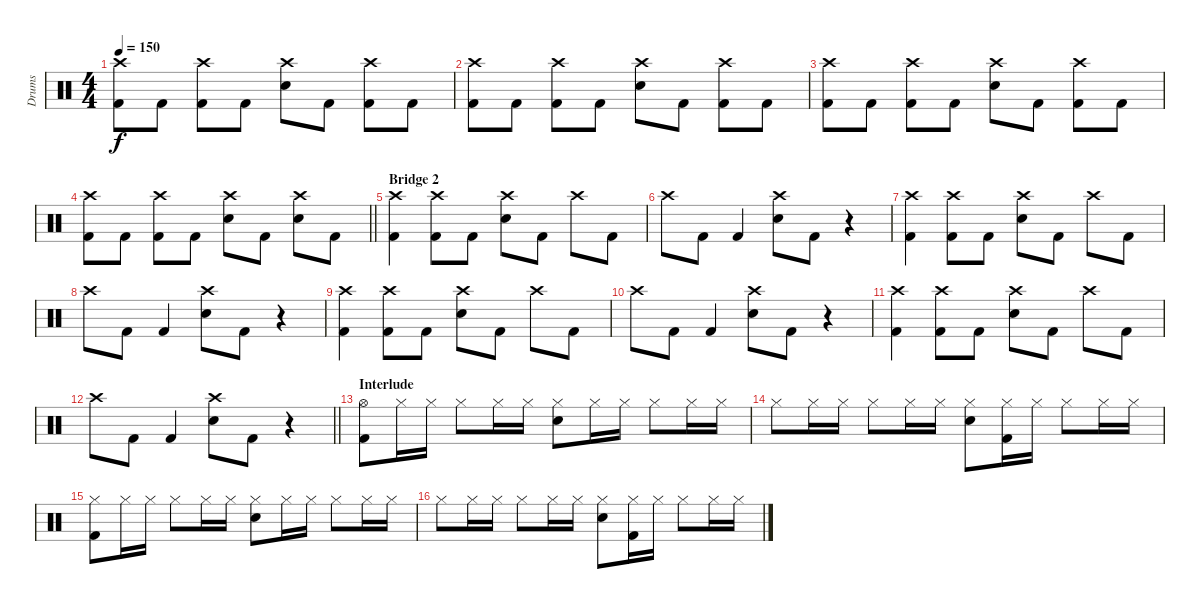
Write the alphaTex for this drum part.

\track ("Drums" "Drums") {instrument percussion}
\staff {score}
\articulation defaults
\ts (4 4)
\tempo 150
\clef neutral
\ks c
("Crash high (hit)" "Kick (hit) 2").8{dy f} "Kick (hit) 2".8 ("Crash high (hit)" "Kick (hit) 2").8 "Kick (hit) 2".8 ("Crash high (hit)" "Snare (hit) 2").8 "Kick (hit) 2".8 ("Crash high (hit)" "Kick (hit) 2").8 "Kick (hit) 2".8 |
("Crash high (hit)" "Kick (hit) 2").8 "Kick (hit) 2".8 ("Crash high (hit)" "Kick (hit) 2").8 "Kick (hit) 2".8 ("Crash high (hit)" "Snare (hit) 2").8 "Kick (hit) 2".8 ("Crash high (hit)" "Kick (hit) 2").8 "Kick (hit) 2".8 |
("Crash high (hit)" "Kick (hit) 2").8 "Kick (hit) 2".8 ("Crash high (hit)" "Kick (hit) 2").8 "Kick (hit) 2".8 ("Crash high (hit)" "Snare (hit) 2").8 "Kick (hit) 2".8 ("Crash high (hit)" "Kick (hit) 2").8 "Kick (hit) 2".8 |
\barLineRight lightlight
("Crash high (hit)" "Kick (hit) 2").8 "Kick (hit) 2".8 ("Crash high (hit)" "Kick (hit) 2").8 "Kick (hit) 2".8 ("Crash high (hit)" "Snare (hit) 2").8 "Kick (hit) 2".8 ("Crash high (hit)" "Snare (hit) 2").8 "Kick (hit) 2".8 |
\section ("" "Bridge 2")
("Crash high (hit)" "Kick (hit) 2").4 ("Crash high (hit)" "Kick (hit) 2").8 "Kick (hit) 2".8 ("Crash high (hit)" "Snare (hit) 2").8 "Kick (hit) 2".8 "Crash high (hit)".8 "Kick (hit) 2".8 |
"Crash high (hit)".8 "Kick (hit) 2".8 "Kick (hit) 2".4 ("Crash high (hit)" "Snare (hit) 2").8 "Kick (hit) 2".8 r.4 |
("Crash high (hit)" "Kick (hit) 2").4 ("Crash high (hit)" "Kick (hit) 2").8 "Kick (hit) 2".8 ("Crash high (hit)" "Snare (hit) 2").8 "Kick (hit) 2".8 "Crash high (hit)".8 "Kick (hit) 2".8 |
"Crash high (hit)".8 "Kick (hit) 2".8 "Kick (hit) 2".4 ("Crash high (hit)" "Snare (hit) 2").8 "Kick (hit) 2".8 r.4 |
("Crash high (hit)" "Kick (hit) 2").4 ("Crash high (hit)" "Kick (hit) 2").8 "Kick (hit) 2".8 ("Crash high (hit)" "Snare (hit) 2").8 "Kick (hit) 2".8 "Crash high (hit)".8 "Kick (hit) 2".8 |
"Crash high (hit)".8 "Kick (hit) 2".8 "Kick (hit) 2".4 ("Crash high (hit)" "Snare (hit) 2").8 "Kick (hit) 2".8 r.4 |
("Crash high (hit)" "Kick (hit) 2").4 ("Crash high (hit)" "Kick (hit) 2").8 "Kick (hit) 2".8 ("Crash high (hit)" "Snare (hit) 2").8 "Kick (hit) 2".8 "Crash high (hit)".8 "Kick (hit) 2".8 |
\barLineRight lightlight "Crash high (hit)".8 "Kick (hit) 2".8 "Kick (hit) 2".4
("Crash high (hit)" "Snare (hit) 2").8 "Kick (hit) 2".8 r.4 |
\section ("" "Interlude")
("Hi-Hat (open)" "Kick (hit) 2").8 "Hi-Hat (closed)".16 "Hi-Hat (closed)".16 "Hi-Hat (closed)".8 "Hi-Hat (closed)".16 "Hi-Hat (closed)".16 ("Hi-Hat (closed)" "Snare (hit) 2").8 "Hi-Hat (closed)".16 "Hi-Hat (closed)".16 "Hi-Hat (closed)".8 "Hi-Hat (closed)".16 "Hi-Hat (closed)".16 |
"Hi-Hat (closed)".8 "Hi-Hat (closed)".16 "Hi-Hat (closed)".16 "Hi-Hat (closed)".8 "Hi-Hat (closed)".16 "Hi-Hat (closed)".16 ("Hi-Hat (closed)" "Snare (hit) 2").8 ("Hi-Hat (closed)" "Kick (hit) 2").16 "Hi-Hat (closed)".16 "Hi-Hat (closed)".8 "Hi-Hat (closed)".16 "Hi-Hat (closed)".16 |
("Hi-Hat (closed)" "Kick (hit) 2").8 "Hi-Hat (closed)".16 "Hi-Hat (closed)".16 "Hi-Hat (closed)".8 "Hi-Hat (closed)".16 "Hi-Hat (closed)".16 ("Hi-Hat (closed)" "Snare (hit) 2").8 "Hi-Hat (closed)".16 "Hi-Hat (closed)".16 "Hi-Hat (closed)".8 "Hi-Hat (closed)".16 "Hi-Hat (closed)".16 |
"Hi-Hat (closed)".8 "Hi-Hat (closed)".16 "Hi-Hat (closed)".16 "Hi-Hat (closed)".8 "Hi-Hat (closed)".16 "Hi-Hat (closed)".16 ("Hi-Hat (closed)" "Snare (hit) 2").8 ("Hi-Hat (closed)" "Kick (hit) 2").16 "Hi-Hat (closed)".16 "Hi-Hat (closed)".8 "Hi-Hat (closed)".16 "Hi-Hat (closed)".16
